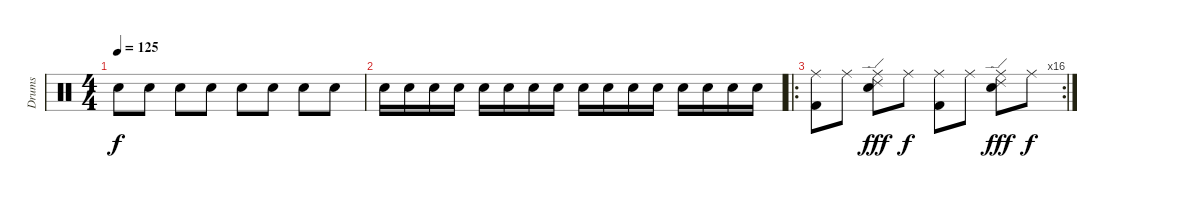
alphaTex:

\track ("Drums" "Drums") {instrument percussion}
\staff {score}
\articulation defaults
\ts (4 4)
\tempo 125
\clef neutral
\ks c "Electric Snare (hit)".8{dy f} "Electric Snare (hit)".8 "Electric Snare (hit)".8 "Electric Snare (hit)".8 "Electric Snare (hit)".8 "Electric Snare (hit)".8 "Electric Snare (hit)".8 "Electric Snare (hit)".8
|
"Electric Snare (hit)".16 "Electric Snare (hit)".16 "Electric Snare (hit)".16 "Electric Snare (hit)".16 "Electric Snare (hit)".16 "Electric Snare (hit)".16 "Electric Snare (hit)".16 "Electric Snare (hit)".16 "Electric Snare (hit)".16 "Electric Snare (hit)".16 "Electric Snare (hit)".16 "Electric Snare (hit)".16 "Electric Snare (hit)".16 "Electric Snare (hit)".16 "Electric Snare (hit)".16 "Electric Snare (hit)".16 |
\ro
\rc 16
("Ride (middle)" "Kick (hit) 2").8 "Ride (middle)".8 ("Ride (middle)" "Electric Snare (hit)" "Ride (edge) 2").8{dy fff} "Ride (middle)".8{dy f} ("Ride (middle)" "Kick (hit) 2").8 "Ride (middle)".8 ("Ride (middle)" "Electric Snare (hit)" "Ride (edge) 2").8{dy fff} "Ride (middle)".8{dy f}
